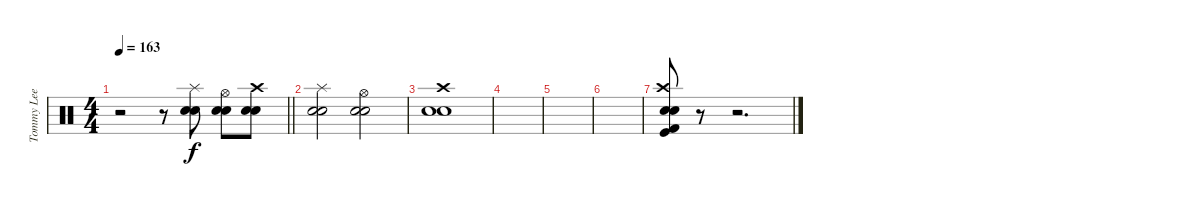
\track ("Tommy Lee" "Tommy Lee") {instrument percussion}
\staff {score}
\articulation defaults
\ts (4 4)
\tempo 163
\clef neutral
\barLineRight lightlight
\ks c
r.2{dy f} r.8 ("Splash (hit)" "Electric Snare (hit)" "Snare (hit) 2").8 ("Hi-Hat (open)" "Electric Snare (hit)" "Snare (hit) 2").8 ("Crash high (hit)" "Electric Snare (hit)" "Snare (hit) 2").8 |
("Splash (hit)" "Electric Snare (hit)" "Snare (hit) 2").2 ("Hi-Hat (open)" "Electric Snare (hit)" "Snare (hit) 2").2 |
("Crash high (hit)" "Electric Snare (hit)" "Snare (hit) 2").1 |
|
|
|
("Crash high (hit)" "Electric Snare (hit)" "Snare (hit) 2" "Kick (hit) 2" "Kick (hit)").8 r.8 r.2{d}
